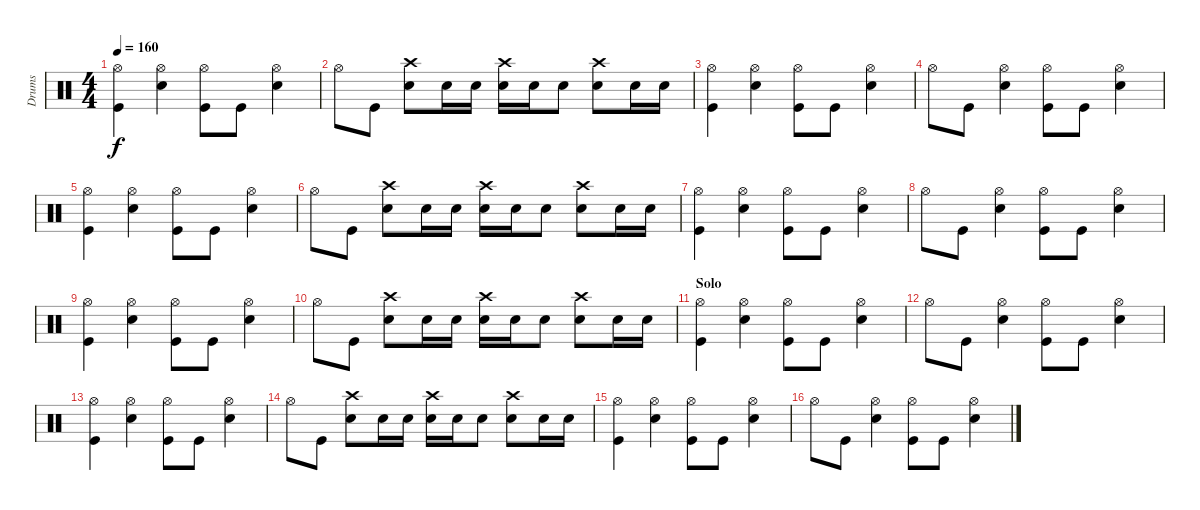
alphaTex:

\track ("Drums" "Drums") {instrument percussion}
\staff {score}
\articulation defaults
\ts (4 4)
\tempo 160
\clef neutral
\ks c
("Hi-Hat (open)" "Kick (hit)").4{dy f} ("Hi-Hat (open)" "Electric Snare (hit)").4 ("Hi-Hat (open)" "Kick (hit)").8 "Kick (hit)".8 ("Hi-Hat (open)" "Electric Snare (hit)").4 |
"Hi-Hat (open)".8 "Kick (hit)".8 ("Electric Snare (hit)" "Crash high (hit)").8 "Electric Snare (hit)".16 "Electric Snare (hit)".16 ("Electric Snare (hit)" "Crash high (hit)").16 "Electric Snare (hit)".16 "Electric Snare (hit)".8 ("Electric Snare (hit)" "Crash high (hit)").8 "Electric Snare (hit)".16 "Electric Snare (hit)".16 |
("Hi-Hat (open)" "Kick (hit)").4 ("Hi-Hat (open)" "Electric Snare (hit)").4 ("Hi-Hat (open)" "Kick (hit)").8 "Kick (hit)".8 ("Hi-Hat (open)" "Electric Snare (hit)").4 |
"Hi-Hat (open)".8 "Kick (hit)".8 ("Hi-Hat (open)" "Electric Snare (hit)").4 ("Hi-Hat (open)" "Kick (hit)").8 "Kick (hit)".8 ("Hi-Hat (open)" "Electric Snare (hit)").4 |
("Hi-Hat (open)" "Kick (hit)").4 ("Hi-Hat (open)" "Electric Snare (hit)").4 ("Hi-Hat (open)" "Kick (hit)").8 "Kick (hit)".8 ("Hi-Hat (open)" "Electric Snare (hit)").4 |
"Hi-Hat (open)".8 "Kick (hit)".8 ("Electric Snare (hit)" "Crash high (hit)").8 "Electric Snare (hit)".16 "Electric Snare (hit)".16 ("Electric Snare (hit)" "Crash high (hit)").16 "Electric Snare (hit)".16 "Electric Snare (hit)".8 ("Electric Snare (hit)" "Crash high (hit)").8 "Electric Snare (hit)".16 "Electric Snare (hit)".16 |
("Hi-Hat (open)" "Kick (hit)").4 ("Hi-Hat (open)" "Electric Snare (hit)").4 ("Hi-Hat (open)" "Kick (hit)").8 "Kick (hit)".8 ("Hi-Hat (open)" "Electric Snare (hit)").4 |
"Hi-Hat (open)".8 "Kick (hit)".8 ("Hi-Hat (open)" "Electric Snare (hit)").4 ("Hi-Hat (open)" "Kick (hit)").8 "Kick (hit)".8 ("Hi-Hat (open)" "Electric Snare (hit)").4 |
("Hi-Hat (open)" "Kick (hit)").4 ("Hi-Hat (open)" "Electric Snare (hit)").4 ("Hi-Hat (open)" "Kick (hit)").8 "Kick (hit)".8 ("Hi-Hat (open)" "Electric Snare (hit)").4 |
"Hi-Hat (open)".8 "Kick (hit)".8 ("Electric Snare (hit)" "Crash high (hit)").8 "Electric Snare (hit)".16 "Electric Snare (hit)".16 ("Electric Snare (hit)" "Crash high (hit)").16 "Electric Snare (hit)".16 "Electric Snare (hit)".8 ("Electric Snare (hit)" "Crash high (hit)").8 "Electric Snare (hit)".16 "Electric Snare (hit)".16 |
\section ("" "Solo")
("Hi-Hat (open)" "Kick (hit)").4 ("Hi-Hat (open)" "Electric Snare (hit)").4 ("Hi-Hat (open)" "Kick (hit)").8 "Kick (hit)".8 ("Hi-Hat (open)" "Electric Snare (hit)").4 |
"Hi-Hat (open)".8 "Kick (hit)".8 ("Hi-Hat (open)" "Electric Snare (hit)").4 ("Hi-Hat (open)" "Kick (hit)").8 "Kick (hit)".8 ("Hi-Hat (open)" "Electric Snare (hit)").4 |
("Hi-Hat (open)" "Kick (hit)").4 ("Hi-Hat (open)" "Electric Snare (hit)").4 ("Hi-Hat (open)" "Kick (hit)").8 "Kick (hit)".8 ("Hi-Hat (open)" "Electric Snare (hit)").4 |
"Hi-Hat (open)".8 "Kick (hit)".8 ("Electric Snare (hit)" "Crash high (hit)").8 "Electric Snare (hit)".16 "Electric Snare (hit)".16 ("Electric Snare (hit)" "Crash high (hit)").16 "Electric Snare (hit)".16 "Electric Snare (hit)".8 ("Electric Snare (hit)" "Crash high (hit)").8 "Electric Snare (hit)".16 "Electric Snare (hit)".16 |
("Hi-Hat (open)" "Kick (hit)").4 ("Hi-Hat (open)" "Electric Snare (hit)").4 ("Hi-Hat (open)" "Kick (hit)").8 "Kick (hit)".8 ("Hi-Hat (open)" "Electric Snare (hit)").4 |
"Hi-Hat (open)".8 "Kick (hit)".8 ("Hi-Hat (open)" "Electric Snare (hit)").4 ("Hi-Hat (open)" "Kick (hit)").8 "Kick (hit)".8 ("Hi-Hat (open)" "Electric Snare (hit)").4
